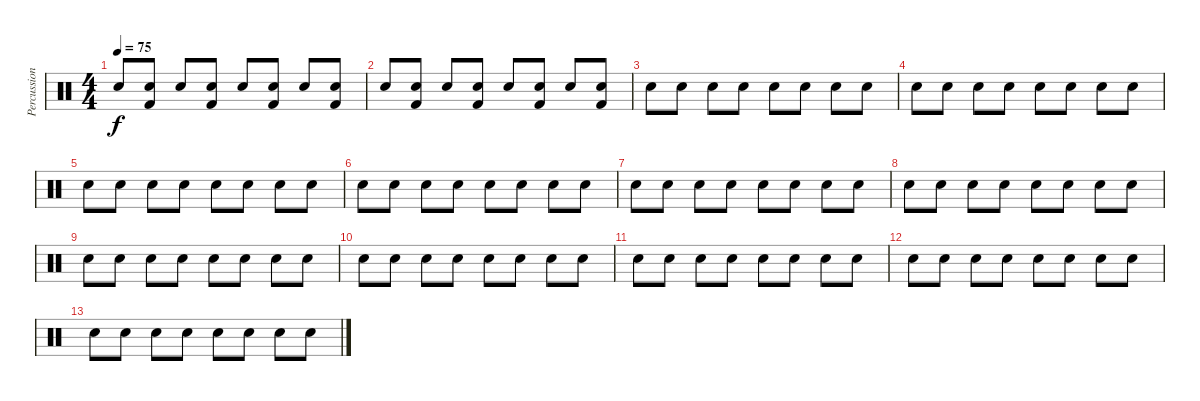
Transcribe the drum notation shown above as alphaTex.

\track ("Percussion" "Percussion") {instrument percussion}
\staff {score}
\articulation defaults
\ts (4 4)
\tempo 75
\clef neutral
\ks c "Snare (hit) 2".8{dy f}
("Snare (hit) 2" "Kick (hit) 2").8 "Snare (hit) 2".8 ("Snare (hit) 2" "Kick (hit) 2").8 "Snare (hit) 2".8 ("Snare (hit) 2" "Kick (hit) 2").8 "Snare (hit) 2".8 ("Snare (hit) 2" "Kick (hit) 2").8 |
"Snare (hit) 2".8 ("Snare (hit) 2" "Kick (hit) 2").8 "Snare (hit) 2".8 ("Snare (hit) 2" "Kick (hit) 2").8 "Snare (hit) 2".8 ("Snare (hit) 2" "Kick (hit) 2").8 "Snare (hit) 2".8 ("Snare (hit) 2" "Kick (hit) 2").8 |
"Snare (hit) 2".8 "Snare (hit) 2".8 "Snare (hit) 2".8 "Snare (hit) 2".8 "Snare (hit) 2".8 "Snare (hit) 2".8 "Snare (hit) 2".8 "Snare (hit) 2".8 |
"Snare (hit) 2".8 "Snare (hit) 2".8 "Snare (hit) 2".8 "Snare (hit) 2".8 "Snare (hit) 2".8 "Snare (hit) 2".8 "Snare (hit) 2".8 "Snare (hit) 2".8 |
"Snare (hit) 2".8 "Snare (hit) 2".8 "Snare (hit) 2".8 "Snare (hit) 2".8 "Snare (hit) 2".8 "Snare (hit) 2".8 "Snare (hit) 2".8 "Snare (hit) 2".8 |
"Snare (hit) 2".8 "Snare (hit) 2".8 "Snare (hit) 2".8 "Snare (hit) 2".8 "Snare (hit) 2".8 "Snare (hit) 2".8 "Snare (hit) 2".8 "Snare (hit) 2".8 |
"Snare (hit) 2".8 "Snare (hit) 2".8 "Snare (hit) 2".8 "Snare (hit) 2".8 "Snare (hit) 2".8 "Snare (hit) 2".8 "Snare (hit) 2".8 "Snare (hit) 2".8 |
"Snare (hit) 2".8 "Snare (hit) 2".8 "Snare (hit) 2".8 "Snare (hit) 2".8 "Snare (hit) 2".8 "Snare (hit) 2".8 "Snare (hit) 2".8 "Snare (hit) 2".8 |
"Snare (hit) 2".8 "Snare (hit) 2".8 "Snare (hit) 2".8 "Snare (hit) 2".8 "Snare (hit) 2".8 "Snare (hit) 2".8 "Snare (hit) 2".8 "Snare (hit) 2".8 |
"Snare (hit) 2".8 "Snare (hit) 2".8 "Snare (hit) 2".8 "Snare (hit) 2".8 "Snare (hit) 2".8 "Snare (hit) 2".8 "Snare (hit) 2".8 "Snare (hit) 2".8 |
"Snare (hit) 2".8 "Snare (hit) 2".8 "Snare (hit) 2".8 "Snare (hit) 2".8 "Snare (hit) 2".8 "Snare (hit) 2".8 "Snare (hit) 2".8 "Snare (hit) 2".8 |
"Snare (hit) 2".8 "Snare (hit) 2".8 "Snare (hit) 2".8 "Snare (hit) 2".8 "Snare (hit) 2".8 "Snare (hit) 2".8 "Snare (hit) 2".8 "Snare (hit) 2".8 |
"Snare (hit) 2".8 "Snare (hit) 2".8 "Snare (hit) 2".8 "Snare (hit) 2".8 "Snare (hit) 2".8 "Snare (hit) 2".8 "Snare (hit) 2".8 "Snare (hit) 2".8
